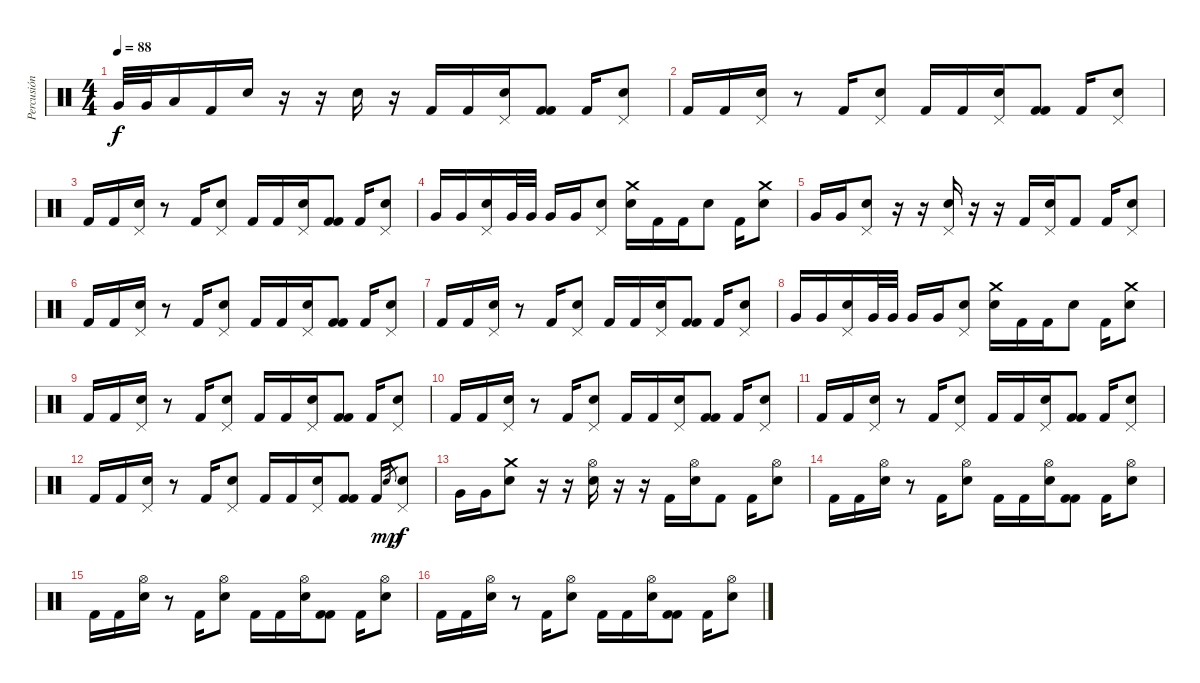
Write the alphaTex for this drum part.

\track ("Percusión" "Percusión") {instrument percussion}
\staff {score}
\articulation defaults
\ts (4 4)
\tempo 88
\clef neutral
\ks c "Very Low Tom (hit)".32{dy f} "Very Low Tom (hit)".32 "Low Floor Tom (hit)".16 "Kick (hit) 2".16 "Electric Snare (hit)".16
r.16 r.16 "Electric Snare (hit)".16 r.16 "Kick (hit) 2".16 "Kick (hit) 2".16 ("Electric Snare (hit)" "Pedal Hi-Hat (hit)").16 ("Kick (hit) 2" "Kick (hit) 2").8 "Kick (hit) 2".16 ("Electric Snare (hit)" "Pedal Hi-Hat (hit)").8 |
"Kick (hit) 2".16 "Kick (hit) 2".16 ("Electric Snare (hit)" "Pedal Hi-Hat (hit)").16 r.8 "Kick (hit) 2".16 ("Electric Snare (hit)" "Pedal Hi-Hat (hit)").8 "Kick (hit) 2".16 "Kick (hit) 2".16 ("Electric Snare (hit)" "Pedal Hi-Hat (hit)").16 ("Kick (hit) 2" "Kick (hit) 2").8 "Kick (hit) 2".16 ("Electric Snare (hit)" "Pedal Hi-Hat (hit)").8 |
"Kick (hit) 2".16 "Kick (hit) 2".16 ("Electric Snare (hit)" "Pedal Hi-Hat (hit)").16 r.8 "Kick (hit) 2".16 ("Electric Snare (hit)" "Pedal Hi-Hat (hit)").8 "Kick (hit) 2".16 "Kick (hit) 2".16 ("Electric Snare (hit)" "Pedal Hi-Hat (hit)").16 ("Kick (hit) 2" "Kick (hit) 2").8 "Kick (hit) 2".16 ("Electric Snare (hit)" "Pedal Hi-Hat (hit)").8 |
"Very Low Tom (hit)".16 "Very Low Tom (hit)".16 ("Electric Snare (hit)" "Pedal Hi-Hat (hit)").16 "Very Low Tom (hit)".32 "Very Low Tom (hit)".32 "Very Low Tom (hit)".16 "Very Low Tom (hit)".16 ("Electric Snare (hit)" "Pedal Hi-Hat (hit)").8 ("Electric Snare (hit)" "Crash medium (hit)").16 "Kick (hit) 2".16 "Kick (hit) 2".16 "Electric Snare (hit)".8 "Kick (hit) 2".16 ("Electric Snare (hit)" "Crash medium (hit)").8 |
"Very Low Tom (hit)".16 "Very Low Tom (hit)".16 ("Electric Snare (hit)" "Pedal Hi-Hat (hit)").8 r.16 r.16 ("Electric Snare (hit)" "Pedal Hi-Hat (hit)").16 r.16 r.16 "Kick (hit) 2".16 ("Electric Snare (hit)" "Pedal Hi-Hat (hit)").16 "Kick (hit) 2".8 "Kick (hit) 2".16 ("Electric Snare (hit)" "Pedal Hi-Hat (hit)").8 |
"Kick (hit) 2".16 "Kick (hit) 2".16 ("Electric Snare (hit)" "Pedal Hi-Hat (hit)").16 r.8 "Kick (hit) 2".16 ("Electric Snare (hit)" "Pedal Hi-Hat (hit)").8 "Kick (hit) 2".16 "Kick (hit) 2".16 ("Electric Snare (hit)" "Pedal Hi-Hat (hit)").16 ("Kick (hit) 2" "Kick (hit) 2").8 "Kick (hit) 2".16 ("Electric Snare (hit)" "Pedal Hi-Hat (hit)").8 |
"Kick (hit) 2".16 "Kick (hit) 2".16 ("Electric Snare (hit)" "Pedal Hi-Hat (hit)").16 r.8 "Kick (hit) 2".16 ("Electric Snare (hit)" "Pedal Hi-Hat (hit)").8 "Kick (hit) 2".16 "Kick (hit) 2".16 ("Electric Snare (hit)" "Pedal Hi-Hat (hit)").16 ("Kick (hit) 2" "Kick (hit) 2").8 "Kick (hit) 2".16 ("Electric Snare (hit)" "Pedal Hi-Hat (hit)").8 |
"Very Low Tom (hit)".16 "Very Low Tom (hit)".16 ("Electric Snare (hit)" "Pedal Hi-Hat (hit)").16 "Very Low Tom (hit)".32 "Very Low Tom (hit)".32 "Very Low Tom (hit)".16 "Very Low Tom (hit)".16 ("Electric Snare (hit)" "Pedal Hi-Hat (hit)").8 ("Electric Snare (hit)" "Crash medium (hit)").16 "Kick (hit) 2".16 "Kick (hit) 2".16 "Electric Snare (hit)".8 "Kick (hit) 2".16 ("Electric Snare (hit)" "Crash medium (hit)").8 |
"Kick (hit) 2".16 "Kick (hit) 2".16 ("Electric Snare (hit)" "Pedal Hi-Hat (hit)").16 r.8 "Kick (hit) 2".16 ("Electric Snare (hit)" "Pedal Hi-Hat (hit)").8 "Kick (hit) 2".16 "Kick (hit) 2".16 ("Electric Snare (hit)" "Pedal Hi-Hat (hit)").16 ("Kick (hit) 2" "Kick (hit) 2").8 "Kick (hit) 2".16 ("Electric Snare (hit)" "Pedal Hi-Hat (hit)").8 |
"Kick (hit) 2".16 "Kick (hit) 2".16 ("Electric Snare (hit)" "Pedal Hi-Hat (hit)").16 r.8 "Kick (hit) 2".16 ("Electric Snare (hit)" "Pedal Hi-Hat (hit)").8 "Kick (hit) 2".16 "Kick (hit) 2".16 ("Electric Snare (hit)" "Pedal Hi-Hat (hit)").16 ("Kick (hit) 2" "Kick (hit) 2").8 "Kick (hit) 2".16 ("Electric Snare (hit)" "Pedal Hi-Hat (hit)").8 |
"Kick (hit) 2".16 "Kick (hit) 2".16 ("Electric Snare (hit)" "Pedal Hi-Hat (hit)").16 r.8 "Kick (hit) 2".16 ("Electric Snare (hit)" "Pedal Hi-Hat (hit)").8 "Kick (hit) 2".16 "Kick (hit) 2".16 ("Electric Snare (hit)" "Pedal Hi-Hat (hit)").16 ("Kick (hit) 2" "Kick (hit) 2").8 "Kick (hit) 2".16 ("Electric Snare (hit)" "Pedal Hi-Hat (hit)").8 |
"Kick (hit) 2".16 "Kick (hit) 2".16 ("Electric Snare (hit)" "Pedal Hi-Hat (hit)").16 r.8 "Kick (hit) 2".16 ("Electric Snare (hit)" "Pedal Hi-Hat (hit)").8 "Kick (hit) 2".16 "Kick (hit) 2".16 ("Electric Snare (hit)" "Pedal Hi-Hat (hit)").16 ("Kick (hit) 2" "Kick (hit) 2").8 "Kick (hit) 2".16 "Electric Snare (hit)".8{gr dy mp} ("Electric Snare (hit)" "Pedal Hi-Hat (hit)").8{dy f} |
"Very Low Tom (hit)".16 "Very Low Tom (hit)".16 ("Electric Snare (hit)" "Crash medium (hit)").8 r.16 r.16 ("Electric Snare (hit)" "Hi-Hat (open)").16 r.16 r.16 "Kick (hit) 2".16 ("Electric Snare (hit)" "Hi-Hat (open)").16 "Kick (hit) 2".8 "Kick (hit) 2".16 ("Electric Snare (hit)" "Hi-Hat (open)").8 |
"Kick (hit) 2".16 "Kick (hit) 2".16 ("Electric Snare (hit)" "Hi-Hat (open)").16 r.8 "Kick (hit) 2".16 ("Electric Snare (hit)" "Hi-Hat (open)").8 "Kick (hit) 2".16 "Kick (hit) 2".16 ("Electric Snare (hit)" "Hi-Hat (open)").16 ("Kick (hit) 2" "Kick (hit) 2").8 "Kick (hit) 2".16 ("Electric Snare (hit)" "Hi-Hat (open)").8 |
"Kick (hit) 2".16 "Kick (hit) 2".16 ("Electric Snare (hit)" "Hi-Hat (open)").16 r.8 "Kick (hit) 2".16 ("Electric Snare (hit)" "Hi-Hat (open)").8 "Kick (hit) 2".16 "Kick (hit) 2".16 ("Electric Snare (hit)" "Hi-Hat (open)").16 ("Kick (hit) 2" "Kick (hit) 2").8 "Kick (hit) 2".16 ("Electric Snare (hit)" "Hi-Hat (open)").8 |
"Kick (hit) 2".16 "Kick (hit) 2".16 ("Electric Snare (hit)" "Hi-Hat (open)").16 r.8 "Kick (hit) 2".16 ("Electric Snare (hit)" "Hi-Hat (open)").8 "Kick (hit) 2".16 "Kick (hit) 2".16 ("Electric Snare (hit)" "Hi-Hat (open)").16 ("Kick (hit) 2" "Kick (hit) 2").8 "Kick (hit) 2".16 ("Electric Snare (hit)" "Hi-Hat (open)").8
